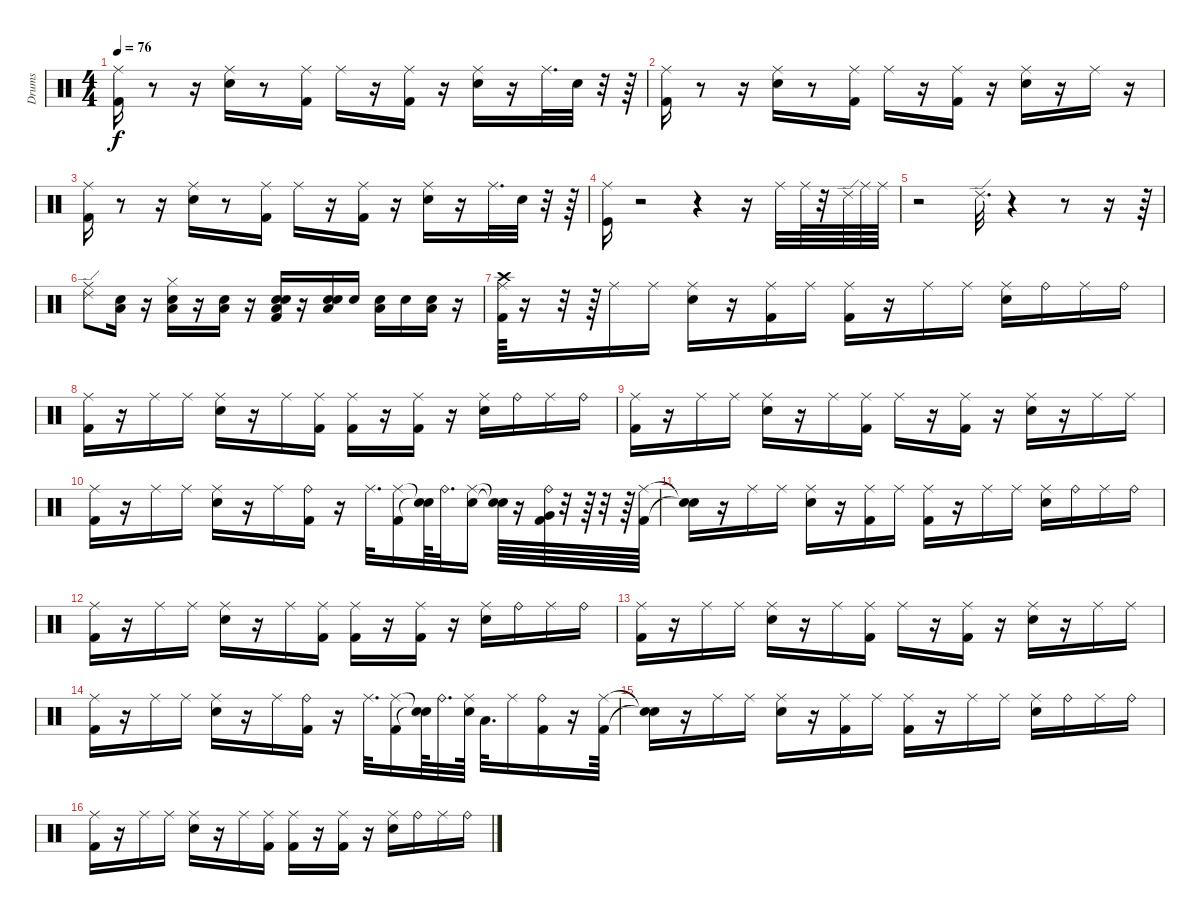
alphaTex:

\track ("Drums" "Drums") {instrument percussion}
\staff {score}
\articulation defaults
\ts (4 4)
\tempo 76
\clef neutral
\ks c
("Ride (middle)" "Kick (hit) 2").16{dy f} r.8 r.16 ("Ride (middle)" "Electric Snare (hit)").16 r.8 ("Kick (hit) 2" "Ride (middle)").16 "Ride (middle)".16 r.16 ("Kick (hit) 2" "Ride (middle)").16 r.16 ("Electric Snare (hit)" "Ride (middle)").16 r.16 "Ride (middle)".32{d} "Electric Snare (hit)".32 r.32 r.64 |
("Kick (hit) 2" "Ride (middle)").16 r.8 r.16 ("Ride (middle)" "Electric Snare (hit)").16 r.8 ("Ride (middle)" "Kick (hit) 2").16 "Ride (middle)".16 r.16 ("Ride (middle)" "Kick (hit) 2").16 r.16 ("Ride (middle)" "Electric Snare (hit)").16 r.16 "Ride (middle)".16 r.16 |
("Kick (hit) 2" "Ride (middle)").16 r.8 r.16 ("Ride (middle)" "Electric Snare (hit)").16 r.8 ("Kick (hit) 2" "Ride (middle)").16 "Ride (middle)".16 r.16 ("Ride (middle)" "Kick (hit) 2").16 r.16 ("Electric Snare (hit)" "Ride (middle)").16 r.16 "Ride (middle)".32{d} "Electric Snare (hit)".32 r.32 r.64 |
("Ride (middle)" "Kick (hit)").16 r.2 r.4 r.16 "Ride (middle)".32 "Ride (middle)".64 r.32 "Ride (edge) 2".64 "Ride (middle)".64 "Ride (middle)".64 |
r.2 "Ride (edge) 2".32{d} r.4 r.8 r.16 r.64 |
("Ride (edge) 2" "Ride (middle)").8 ("Low Floor Tom (hit)" "Snare (hit) 2").16 r.16 ("Low Floor Tom (hit)" "Hi-Hat (closed)" "Snare (hit) 2").16 r.16 ("Snare (hit) 2" "Low Floor Tom (hit)").16 r.16 ("Electric Snare (hit)" "Snare (hit) 2" "Kick (hit) 2" "Low Floor Tom (hit)").16 r.16 ("Low Floor Tom (hit)" "Snare (hit) 2" "Electric Snare (hit)").16 "Snare (hit) 2".16 ("Low Floor Tom (hit)" "Snare (hit) 2").16 "Snare (hit) 2".16 ("Low Floor Tom (hit)" "Snare (hit) 2").16 r.16 |
("Ride (middle)" "Crash high (hit)" "Kick (hit) 2").64 r.16 r.32 r.64 "Ride (middle)".16 "Ride (middle)".16 ("Electric Snare (hit)" "Ride (middle)").16 r.16 ("Kick (hit) 2" "Ride (middle)").16 "Ride (middle)".16 ("Kick (hit) 2" "Ride (middle)").16 r.16 "Ride (middle)".16 "Ride (middle)".16 ("Electric Snare (hit)" "Ride (middle)").16 "Ride (bell)".16 "Ride (middle)".16 "Ride (bell)".16 |
("Ride (middle)" "Kick (hit) 2").16 r.16 "Ride (middle)".16 "Ride (middle)".16 ("Electric Snare (hit)" "Ride (middle)").16 r.16 "Ride (middle)".16 ("Kick (hit) 2" "Ride (middle)").16 ("Kick (hit) 2" "Ride (middle)").16 r.16 ("Ride (middle)" "Kick (hit) 2").16 r.16 ("Electric Snare (hit)" "Ride (middle)").16 "Ride (bell)".16 "Ride (middle)".16 "Ride (bell)".16 |
("Kick (hit) 2" "Ride (middle)").16 r.16 "Ride (middle)".16 "Ride (middle)".16 ("Ride (middle)" "Electric Snare (hit)").16 r.16 "Ride (middle)".16 ("Kick (hit) 2" "Ride (middle)").16 "Ride (middle)".16 r.16 ("Ride (middle)" "Kick (hit) 2").16 r.16 ("Electric Snare (hit)" "Ride (middle)").16 r.16 "Ride (middle)".16 "Ride (middle)".16 |
("Ride (middle)" "Kick (hit) 2").16 r.16 "Ride (middle)".16 "Ride (middle)".16 ("Ride (middle)" "Electric Snare (hit)").16 r.16 "Ride (middle)".16 ("Ride (bell)" "Kick (hit) 2").16 r.16 "Ride (middle)".32{d} ("Ride (middle)" "Kick (hit) 2").16 ("Snare (hit)"{t} "Snare (hit)"{t}).64 "Ride (bell)".32{d} ("Ride (middle)" "Electric Snare (hit)").16 ("Snare (hit)"{t} "Snare (hit)"{t}).64 r.16 ("Kick (hit) 2" "Very Low Tom (hit)" "Ride (bell)").64 r.32 r.64 r.32 r.64 ("Ride (middle)" "Kick (hit) 2").64 |
("Snare (hit)"{t} "Snare (hit)"{t}).16 r.16 "Ride (middle)".16 "Ride (middle)".16 ("Ride (middle)" "Electric Snare (hit)").16 r.16 ("Ride (middle)" "Kick (hit) 2").16 "Ride (middle)".16 ("Ride (middle)" "Kick (hit) 2").16 r.16 "Ride (middle)".16 "Ride (middle)".16 ("Ride (middle)" "Electric Snare (hit)").16 "Ride (bell)".16 "Ride (middle)".16 "Ride (bell)".16 |
("Kick (hit) 2" "Ride (middle)").16 r.16 "Ride (middle)".16 "Ride (middle)".16 ("Electric Snare (hit)" "Ride (middle)").16 r.16 "Ride (middle)".16 ("Kick (hit) 2" "Ride (middle)").16 ("Ride (middle)" "Kick (hit) 2").16 r.16 ("Kick (hit) 2" "Ride (middle)").16 r.16 ("Ride (middle)" "Electric Snare (hit)").16 "Ride (bell)".16 "Ride (middle)".16 "Ride (bell)".16 |
("Ride (middle)" "Kick (hit) 2").16 r.16 "Ride (middle)".16 "Ride (middle)".16 ("Ride (middle)" "Electric Snare (hit)").16 r.16 "Ride (middle)".16 ("Kick (hit) 2" "Ride (middle)").16 "Ride (middle)".16 r.16 ("Ride (middle)" "Kick (hit) 2").16 r.16 ("Ride (middle)" "Electric Snare (hit)").16 r.16 "Ride (middle)".16 "Ride (middle)".16 |
("Kick (hit) 2" "Ride (middle)").16 r.16 "Ride (middle)".16 "Ride (middle)".16 ("Electric Snare (hit)" "Ride (middle)").16 r.16 "Ride (middle)".16 ("Ride (bell)" "Kick (hit) 2").16 r.16 "Ride (middle)".32{d} ("Kick (hit) 2" "Ride (middle)").16 ("Snare (hit)"{t} "Snare (hit)"{t}).64 "Ride (bell)".32{d} ("Ride (middle)" "Electric Snare (hit)").64 "Low Tom (hit)".32{d} "Ride (middle)".16 ("Ride (bell)" "Kick (hit) 2").16 r.16 ("Kick (hit) 2" "Ride (middle)").64 |
("Snare (hit)"{t} "Snare (hit)"{t}).16 r.16 "Ride (middle)".16 "Ride (middle)".16 ("Ride (middle)" "Electric Snare (hit)").16 r.16 ("Ride (middle)" "Kick (hit) 2").16 "Ride (middle)".16 ("Ride (middle)" "Kick (hit) 2").16 r.16 "Ride (middle)".16 "Ride (middle)".16 ("Ride (middle)" "Electric Snare (hit)").16 "Ride (bell)".16 "Ride (middle)".16 "Ride (bell)".16 |
("Ride (middle)" "Kick (hit) 2").16 r.16 "Ride (middle)".16 "Ride (middle)".16 ("Ride (middle)" "Electric Snare (hit)").16 r.16 "Ride (middle)".16 ("Kick (hit) 2" "Ride (middle)").16 ("Kick (hit) 2" "Ride (middle)").16 r.16 ("Ride (middle)" "Kick (hit) 2").16 r.16 ("Ride (middle)" "Electric Snare (hit)").16 "Ride (bell)".16 "Ride (middle)".16 "Ride (bell)".16
